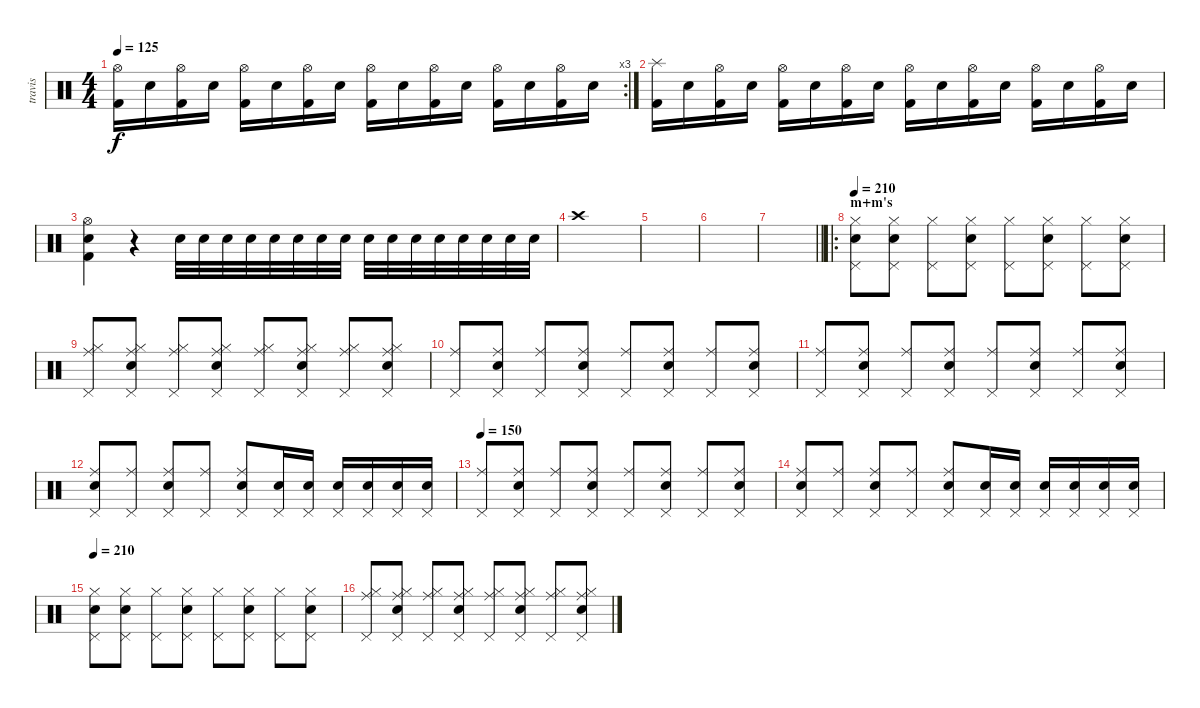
\track ("travis" "travis") {instrument percussion}
\staff {score}
\articulation defaults
\rc 3
\ts (4 4)
\tempo 125
\clef neutral
\ks c
("Hi-Hat (open)" "Kick (hit) 2").16{dy f} "Electric Snare (hit)".16 ("Hi-Hat (open)" "Kick (hit) 2").16 "Electric Snare (hit)".16 ("Hi-Hat (open)" "Kick (hit) 2").16 "Electric Snare (hit)".16 ("Hi-Hat (open)" "Kick (hit) 2").16 "Electric Snare (hit)".16 ("Hi-Hat (open)" "Kick (hit) 2").16 "Electric Snare (hit)".16 ("Hi-Hat (open)" "Kick (hit) 2").16 "Electric Snare (hit)".16 ("Hi-Hat (open)" "Kick (hit) 2").16 "Electric Snare (hit)".16 ("Hi-Hat (open)" "Kick (hit) 2").16 "Electric Snare (hit)".16 |
("Splash (hit)" "Kick (hit) 2").16 "Electric Snare (hit)".16 ("Hi-Hat (open)" "Kick (hit) 2").16 "Electric Snare (hit)".16 ("Hi-Hat (open)" "Kick (hit) 2").16 "Electric Snare (hit)".16 ("Hi-Hat (open)" "Kick (hit) 2").16 "Electric Snare (hit)".16 ("Hi-Hat (open)" "Kick (hit) 2").16 "Electric Snare (hit)".16 ("Hi-Hat (open)" "Kick (hit) 2").16 "Electric Snare (hit)".16 ("Hi-Hat (open)" "Kick (hit) 2").16 "Electric Snare (hit)".16 ("Hi-Hat (open)" "Kick (hit) 2").16 "Electric Snare (hit)".16 |
("Hi-Hat (open)" "Electric Snare (hit)" "Kick (hit) 2").4 r.4 "Electric Snare (hit)".32 "Electric Snare (hit)".32 "Electric Snare (hit)".32 "Electric Snare (hit)".32 "Electric Snare (hit)".32 "Electric Snare (hit)".32 "Electric Snare (hit)".32 "Electric Snare (hit)".32 "Electric Snare (hit)".32 "Electric Snare (hit)".32 "Electric Snare (hit)".32 "Electric Snare (hit)".32 "Electric Snare (hit)".32 "Electric Snare (hit)".32 "Electric Snare (hit)".32 "Electric Snare (hit)".32 |
"Crash high (hit)".1 |
|
|
\barLineRight lightlight
|
\ro
\section ("" "m+m's")
\tempo 210
("Pedal Hi-Hat (hit)" "Hi-Hat (closed)" "Electric Snare (hit)").8{volume 16} ("Pedal Hi-Hat (hit)" "Hi-Hat (closed)" "Electric Snare (hit)").8 ("Pedal Hi-Hat (hit)" "Hi-Hat (closed)").8 ("Pedal Hi-Hat (hit)" "Hi-Hat (closed)" "Electric Snare (hit)").8 ("Pedal Hi-Hat (hit)" "Hi-Hat (closed)").8 ("Pedal Hi-Hat (hit)" "Hi-Hat (closed)" "Electric Snare (hit)").8 ("Pedal Hi-Hat (hit)" "Hi-Hat (closed)").8 ("Pedal Hi-Hat (hit)" "Hi-Hat (closed)" "Electric Snare (hit)").8 |
("Pedal Hi-Hat (hit)" "Ride (middle)" "Hi-Hat (closed)").8 ("Pedal Hi-Hat (hit)" "Ride (middle)" "Hi-Hat (closed)" "Electric Snare (hit)").8 ("Pedal Hi-Hat (hit)" "Ride (middle)" "Hi-Hat (closed)").8 ("Pedal Hi-Hat (hit)" "Ride (middle)" "Hi-Hat (closed)" "Electric Snare (hit)").8 ("Pedal Hi-Hat (hit)" "Ride (middle)" "Hi-Hat (closed)").8 ("Pedal Hi-Hat (hit)" "Ride (middle)" "Hi-Hat (closed)" "Electric Snare (hit)").8 ("Pedal Hi-Hat (hit)" "Ride (middle)" "Hi-Hat (closed)").8 ("Pedal Hi-Hat (hit)" "Ride (middle)" "Hi-Hat (closed)" "Electric Snare (hit)").8 |
("Pedal Hi-Hat (hit)" "Ride (middle)").8 ("Pedal Hi-Hat (hit)" "Ride (middle)" "Electric Snare (hit)").8 ("Pedal Hi-Hat (hit)" "Ride (middle)").8 ("Pedal Hi-Hat (hit)" "Ride (middle)" "Electric Snare (hit)").8 ("Pedal Hi-Hat (hit)" "Ride (middle)").8 ("Pedal Hi-Hat (hit)" "Ride (middle)" "Electric Snare (hit)").8 ("Pedal Hi-Hat (hit)" "Ride (middle)").8 ("Pedal Hi-Hat (hit)" "Ride (middle)" "Electric Snare (hit)").8 |
("Pedal Hi-Hat (hit)" "Ride (middle)").8 ("Pedal Hi-Hat (hit)" "Ride (middle)" "Electric Snare (hit)").8 ("Pedal Hi-Hat (hit)" "Ride (middle)").8 ("Pedal Hi-Hat (hit)" "Ride (middle)" "Electric Snare (hit)").8 ("Pedal Hi-Hat (hit)" "Ride (middle)").8 ("Pedal Hi-Hat (hit)" "Ride (middle)" "Electric Snare (hit)").8 ("Pedal Hi-Hat (hit)" "Ride (middle)").8 ("Pedal Hi-Hat (hit)" "Ride (middle)" "Electric Snare (hit)").8 |
("Pedal Hi-Hat (hit)" "Ride (middle)" "Electric Snare (hit)").8 ("Pedal Hi-Hat (hit)" "Ride (middle)").8 ("Pedal Hi-Hat (hit)" "Ride (middle)" "Electric Snare (hit)").8 ("Pedal Hi-Hat (hit)" "Ride (middle)").8 ("Pedal Hi-Hat (hit)" "Ride (middle)" "Electric Snare (hit)").8 ("Pedal Hi-Hat (hit)" "Electric Snare (hit)").16 ("Pedal Hi-Hat (hit)" "Snare (hit) 2").16 ("Pedal Hi-Hat (hit)" "Electric Snare (hit)").16 ("Pedal Hi-Hat (hit)" "Snare (hit) 2").16 ("Pedal Hi-Hat (hit)" "Electric Snare (hit)").16 ("Pedal Hi-Hat (hit)" "Snare (hit) 2").16 |
\tempo 150
("Pedal Hi-Hat (hit)" "Ride (middle)").8 ("Pedal Hi-Hat (hit)" "Ride (middle)" "Electric Snare (hit)").8 ("Pedal Hi-Hat (hit)" "Ride (middle)").8 ("Pedal Hi-Hat (hit)" "Ride (middle)" "Electric Snare (hit)").8 ("Pedal Hi-Hat (hit)" "Ride (middle)").8 ("Pedal Hi-Hat (hit)" "Ride (middle)" "Electric Snare (hit)").8 ("Pedal Hi-Hat (hit)" "Ride (middle)").8 ("Pedal Hi-Hat (hit)" "Ride (middle)" "Electric Snare (hit)").8 |
("Pedal Hi-Hat (hit)" "Ride (middle)" "Electric Snare (hit)").8 ("Pedal Hi-Hat (hit)" "Ride (middle)").8 ("Pedal Hi-Hat (hit)" "Ride (middle)" "Electric Snare (hit)").8 ("Pedal Hi-Hat (hit)" "Ride (middle)").8 ("Pedal Hi-Hat (hit)" "Ride (middle)" "Electric Snare (hit)").8 ("Pedal Hi-Hat (hit)" "Electric Snare (hit)").16 ("Pedal Hi-Hat (hit)" "Snare (hit) 2").16 ("Pedal Hi-Hat (hit)" "Electric Snare (hit)").16 ("Pedal Hi-Hat (hit)" "Snare (hit) 2").16 ("Pedal Hi-Hat (hit)" "Electric Snare (hit)").16 ("Pedal Hi-Hat (hit)" "Snare (hit) 2").16 |
\tempo 150
\tempo 210
("Pedal Hi-Hat (hit)" "Hi-Hat (closed)" "Electric Snare (hit)").8{volume 16} ("Pedal Hi-Hat (hit)" "Hi-Hat (closed)" "Electric Snare (hit)").8 ("Pedal Hi-Hat (hit)" "Hi-Hat (closed)").8 ("Pedal Hi-Hat (hit)" "Hi-Hat (closed)" "Electric Snare (hit)").8 ("Pedal Hi-Hat (hit)" "Hi-Hat (closed)").8 ("Pedal Hi-Hat (hit)" "Hi-Hat (closed)" "Electric Snare (hit)").8 ("Pedal Hi-Hat (hit)" "Hi-Hat (closed)").8 ("Pedal Hi-Hat (hit)" "Hi-Hat (closed)" "Electric Snare (hit)").8 |
("Pedal Hi-Hat (hit)" "Ride (middle)" "Hi-Hat (closed)").8 ("Pedal Hi-Hat (hit)" "Ride (middle)" "Hi-Hat (closed)" "Electric Snare (hit)").8 ("Pedal Hi-Hat (hit)" "Ride (middle)" "Hi-Hat (closed)").8 ("Pedal Hi-Hat (hit)" "Ride (middle)" "Hi-Hat (closed)" "Electric Snare (hit)").8 ("Pedal Hi-Hat (hit)" "Ride (middle)" "Hi-Hat (closed)").8 ("Pedal Hi-Hat (hit)" "Ride (middle)" "Hi-Hat (closed)" "Electric Snare (hit)").8 ("Pedal Hi-Hat (hit)" "Ride (middle)" "Hi-Hat (closed)").8 ("Pedal Hi-Hat (hit)" "Ride (middle)" "Hi-Hat (closed)" "Electric Snare (hit)").8
